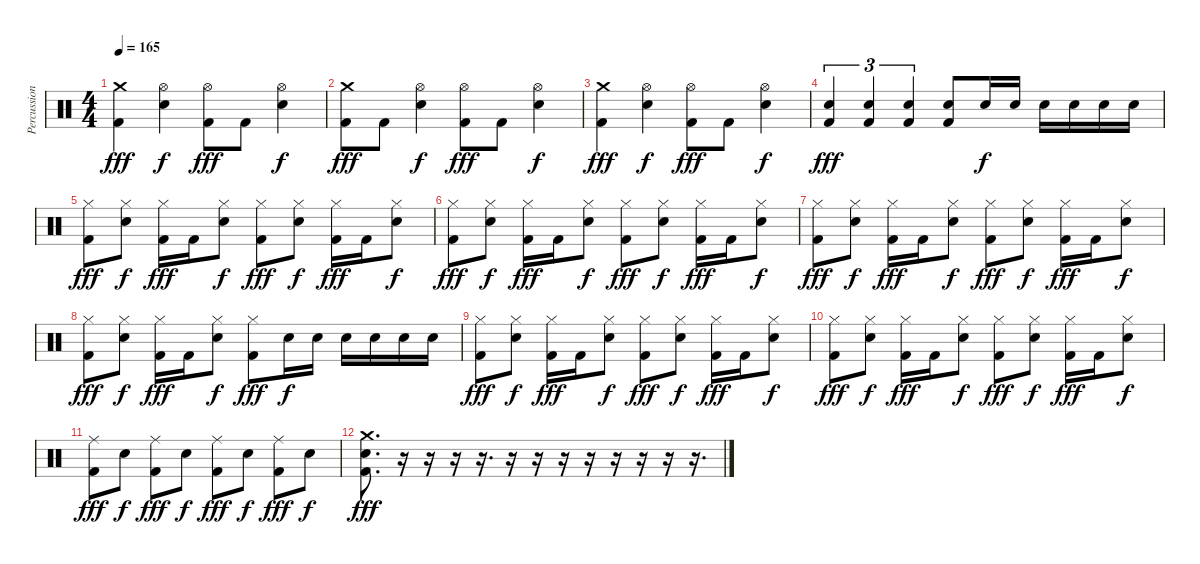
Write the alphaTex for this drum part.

\track ("Percussion" "Percussion") {instrument percussion}
\staff {score}
\articulation defaults
\ts (4 4)
\tempo 165
\clef neutral
\ks c
("Crash medium (hit)" "Kick (hit) 2").4{dy fff} ("Hi-Hat (open)" "Electric Snare (hit)").4{dy f} ("Hi-Hat (open)" "Kick (hit) 2").8{dy fff} "Kick (hit) 2".8 ("Hi-Hat (open)" "Electric Snare (hit)").4{dy f} |
("Crash medium (hit)" "Kick (hit) 2").8{dy fff} "Kick (hit) 2".8 ("Hi-Hat (open)" "Electric Snare (hit)").4{dy f} ("Hi-Hat (open)" "Kick (hit) 2").8{dy fff} "Kick (hit) 2".8 ("Hi-Hat (open)" "Electric Snare (hit)").4{dy f} |
("Crash medium (hit)" "Kick (hit) 2").4{dy fff} ("Hi-Hat (open)" "Electric Snare (hit)").4{dy f} ("Hi-Hat (open)" "Kick (hit) 2").8{dy fff} "Kick (hit) 2".8 ("Hi-Hat (open)" "Electric Snare (hit)").4{dy f} |
("Electric Snare (hit)" "Kick (hit) 2").4{tu (3 2) dy fff} ("Electric Snare (hit)" "Kick (hit) 2").4{tu (3 2)} ("Electric Snare (hit)" "Kick (hit) 2").4{tu (3 2)} ("Electric Snare (hit)" "Kick (hit) 2").8 "Electric Snare (hit)".16{dy f} "Electric Snare (hit)".16 "Electric Snare (hit)".16 "Electric Snare (hit)".16 "Electric Snare (hit)".16 "Electric Snare (hit)".16 |
("Hi-Hat (closed)" "Kick (hit) 2").8{dy fff} ("Hi-Hat (closed)" "Electric Snare (hit)").8{dy f} ("Hi-Hat (closed)" "Kick (hit) 2").16{dy fff} "Kick (hit) 2".16 ("Hi-Hat (closed)" "Electric Snare (hit)").8{dy f} ("Hi-Hat (closed)" "Kick (hit) 2").8{dy fff} ("Hi-Hat (closed)" "Electric Snare (hit)").8{dy f} ("Hi-Hat (closed)" "Kick (hit) 2").16{dy fff} "Kick (hit) 2".16 ("Hi-Hat (closed)" "Electric Snare (hit)").8{dy f} |
("Hi-Hat (closed)" "Kick (hit) 2").8{dy fff} ("Hi-Hat (closed)" "Electric Snare (hit)").8{dy f} ("Hi-Hat (closed)" "Kick (hit) 2").16{dy fff} "Kick (hit) 2".16 ("Hi-Hat (closed)" "Electric Snare (hit)").8{dy f} ("Hi-Hat (closed)" "Kick (hit) 2").8{dy fff} ("Hi-Hat (closed)" "Electric Snare (hit)").8{dy f} ("Hi-Hat (closed)" "Kick (hit) 2").16{dy fff} "Kick (hit) 2".16 ("Hi-Hat (closed)" "Electric Snare (hit)").8{dy f} |
("Hi-Hat (closed)" "Kick (hit) 2").8{dy fff} ("Hi-Hat (closed)" "Electric Snare (hit)").8{dy f} ("Hi-Hat (closed)" "Kick (hit) 2").16{dy fff} "Kick (hit) 2".16 ("Hi-Hat (closed)" "Electric Snare (hit)").8{dy f} ("Hi-Hat (closed)" "Kick (hit) 2").8{dy fff} ("Hi-Hat (closed)" "Electric Snare (hit)").8{dy f} ("Hi-Hat (closed)" "Kick (hit) 2").16{dy fff} "Kick (hit) 2".16 ("Hi-Hat (closed)" "Electric Snare (hit)").8{dy f} |
("Hi-Hat (closed)" "Kick (hit) 2").8{dy fff} ("Hi-Hat (closed)" "Electric Snare (hit)").8{dy f} ("Hi-Hat (closed)" "Kick (hit) 2").16{dy fff} "Kick (hit) 2".16 ("Hi-Hat (closed)" "Electric Snare (hit)").8{dy f} ("Hi-Hat (closed)" "Kick (hit) 2").8{dy fff} "Electric Snare (hit)".16{dy f} "Electric Snare (hit)".16 "Electric Snare (hit)".16 "Electric Snare (hit)".16 "Electric Snare (hit)".16 "Electric Snare (hit)".16 |
("Hi-Hat (closed)" "Kick (hit) 2").8{dy fff} ("Hi-Hat (closed)" "Electric Snare (hit)").8{dy f} ("Hi-Hat (closed)" "Kick (hit) 2").16{dy fff} "Kick (hit) 2".16 ("Hi-Hat (closed)" "Electric Snare (hit)").8{dy f} ("Hi-Hat (closed)" "Kick (hit) 2").8{dy fff} ("Hi-Hat (closed)" "Electric Snare (hit)").8{dy f} ("Hi-Hat (closed)" "Kick (hit) 2").16{dy fff} "Kick (hit) 2".16 ("Hi-Hat (closed)" "Electric Snare (hit)").8{dy f} |
("Hi-Hat (closed)" "Kick (hit) 2").8{dy fff} ("Hi-Hat (closed)" "Electric Snare (hit)").8{dy f} ("Hi-Hat (closed)" "Kick (hit) 2").16{dy fff} "Kick (hit) 2".16 ("Hi-Hat (closed)" "Electric Snare (hit)").8{dy f} ("Hi-Hat (closed)" "Kick (hit) 2").8{dy fff} ("Hi-Hat (closed)" "Electric Snare (hit)").8{dy f} ("Hi-Hat (closed)" "Kick (hit) 2").16{dy fff} "Kick (hit) 2".16 ("Hi-Hat (closed)" "Electric Snare (hit)").8{dy f} |
("Ride (middle)" "Kick (hit) 2").8{dy fff} "Electric Snare (hit)".8{dy f} ("Ride (middle)" "Kick (hit) 2").8{dy fff} "Electric Snare (hit)".8{dy f} ("Ride (middle)" "Kick (hit) 2").8{dy fff} "Electric Snare (hit)".8{dy f} ("Ride (middle)" "Kick (hit) 2").8{dy fff} "Electric Snare (hit)".8{dy f} |
("Crash medium (hit)" "Electric Snare (hit)" "Kick (hit) 2").8{d dy fff} r.16 r.16 r.16 r.16{d} r.16 r.16 r.16 r.16 r.16 r.16 r.16 r.16{d}
